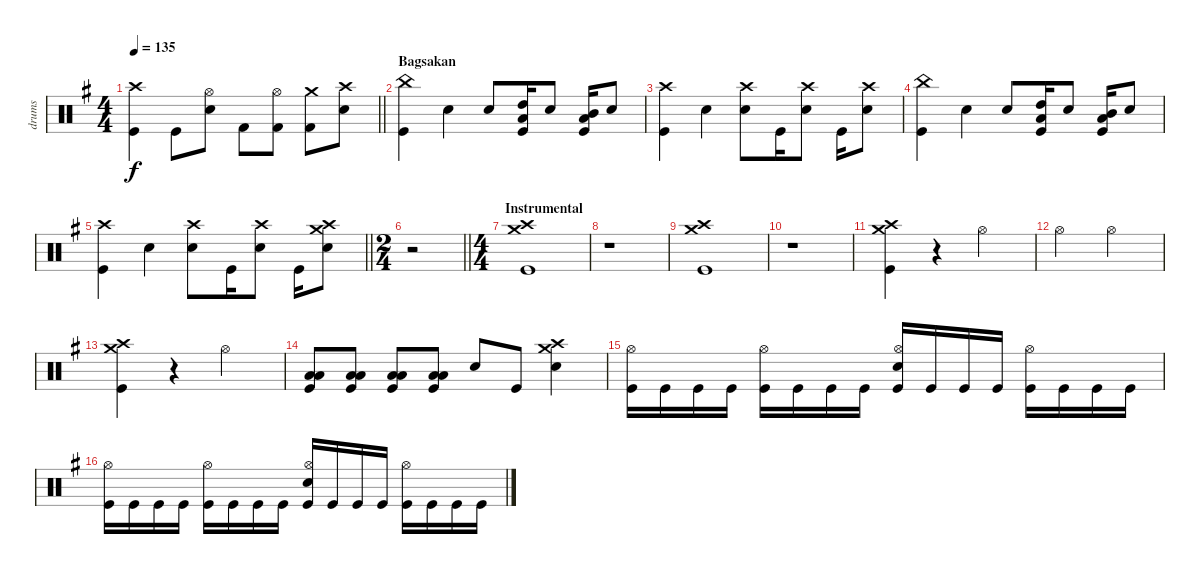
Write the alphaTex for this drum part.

\track ("drums" "drums") {instrument percussion}
\staff {score}
\articulation defaults
\ts (4 4)
\tempo 135
\clef neutral
\barLineRight lightlight
\ks eminor
("Crash high (hit)" "Kick (hit)").4{dy f} "Kick (hit)".8 ("Hi-Hat (open)" "Snare (hit) 2").8 "Kick (hit) 2".8 ("Hi-Hat (open)" "Kick (hit) 2").8 ("Crash medium (hit)" "Kick (hit) 2").8 ("Crash high (hit)" "Snare (hit) 2").8 |
\section ("" "Bagsakan")
("China (hit)" "Kick (hit)").4 "Snare (hit) 2".4 "Snare (hit) 2".8 ("High Tom (hit)" "Low Floor Tom (hit)" "Kick (hit)").16 "Snare (hit) 2".8 ("Mid Tom (hit)" "Low Floor Tom (hit)" "Kick (hit)").16 "Snare (hit) 2".8 |
("Crash high (hit)" "Kick (hit)").4 "Snare (hit) 2".4 ("Crash high (hit)" "Snare (hit) 2").8 "Kick (hit)".16 ("Crash high (hit)" "Snare (hit) 2").8 "Kick (hit)".16 ("Crash high (hit)" "Snare (hit) 2").8 |
("China (hit)" "Kick (hit)").4 "Snare (hit) 2".4 "Snare (hit) 2".8 ("High Tom (hit)" "Low Floor Tom (hit)" "Kick (hit)").16 "Snare (hit) 2".8 ("Mid Tom (hit)" "Low Floor Tom (hit)" "Kick (hit)").16 "Snare (hit) 2".8 |
\barLineRight lightlight
("Crash high (hit)" "Kick (hit)").4 "Snare (hit) 2".4 ("Crash high (hit)" "Snare (hit) 2").8 "Kick (hit)".16 ("Crash high (hit)" "Snare (hit) 2").8 "Kick (hit)".16 ("Crash high (hit)" "Crash medium (hit)" "Snare (hit) 2").8 |
\ts (2 4)
\barLineRight lightlight
r.2 |
\ts (4 4)
\section ("" "Instrumental")
("Crash high (hit)" "Crash medium (hit)" "Kick (hit)").1 |
r.1 |
("Crash high (hit)" "Crash medium (hit)" "Kick (hit)").1 |
r.1 |
("Crash high (hit)" "Crash medium (hit)" "Kick (hit)").4 r.4 "Hi-Hat (open)".2 |
"Hi-Hat (open)".2 "Hi-Hat (open)".2 |
("Crash high (hit)" "Crash medium (hit)" "Kick (hit)").4 r.4 "Hi-Hat (open)".2 |
("Low Tom (hit)" "Low Floor Tom (hit)" "Kick (hit)").8 ("Low Tom (hit)" "Low Floor Tom (hit)" "Kick (hit)").8 ("Low Tom (hit)" "Low Floor Tom (hit)" "Kick (hit)").8 ("Low Tom (hit)" "Low Floor Tom (hit)" "Kick (hit)").8 "Snare (hit) 2".8 "Kick (hit)".8 ("Crash high (hit)" "Crash medium (hit)" "Snare (hit) 2").4 |
("Hi-Hat (open)" "Kick (hit)").16 "Kick (hit)".16 "Kick (hit)".16 "Kick (hit)".16 ("Hi-Hat (open)" "Kick (hit)").16 "Kick (hit)".16 "Kick (hit)".16 "Kick (hit)".16 ("Hi-Hat (open)" "Snare (hit) 2" "Kick (hit)").16 "Kick (hit)".16 "Kick (hit)".16 "Kick (hit)".16 ("Hi-Hat (open)" "Kick (hit)").16 "Kick (hit)".16 "Kick (hit)".16 "Kick (hit)".16 |
("Hi-Hat (open)" "Kick (hit)").16 "Kick (hit)".16 "Kick (hit)".16 "Kick (hit)".16 ("Hi-Hat (open)" "Kick (hit)").16 "Kick (hit)".16 "Kick (hit)".16 "Kick (hit)".16 ("Hi-Hat (open)" "Snare (hit) 2" "Kick (hit)").16 "Kick (hit)".16 "Kick (hit)".16 "Kick (hit)".16 ("Hi-Hat (open)" "Kick (hit)").16 "Kick (hit)".16 "Kick (hit)".16 "Kick (hit)".16
